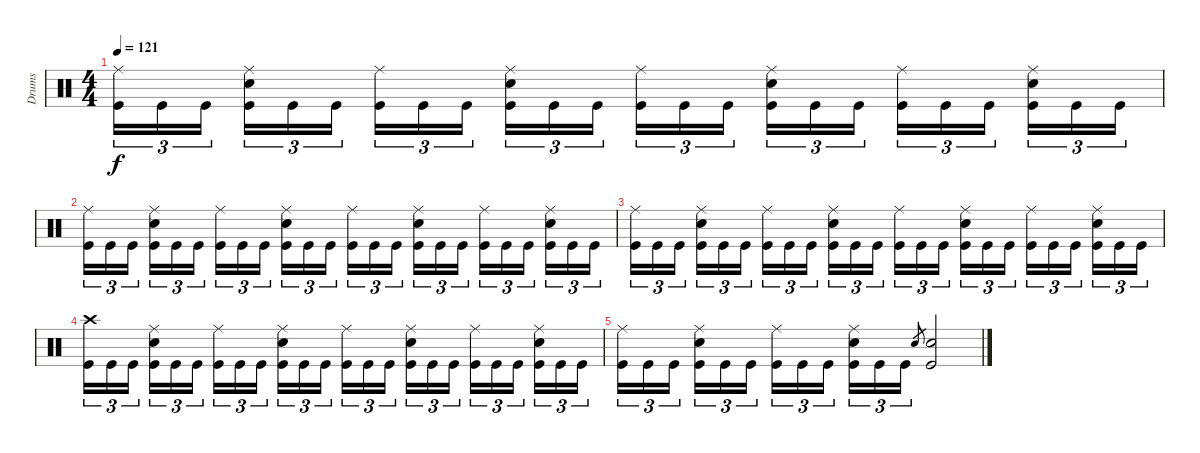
\track ("Drums" "Drums") {instrument percussion}
\staff {score}
\articulation defaults
\ts (4 4)
\tempo 121
\clef neutral
\ks c
("Ride (middle)" "Kick (hit)").16{tu (3 2) dy f} "Kick (hit)".16{tu (3 2)} "Kick (hit)".16{tu (3 2)} ("Ride (middle)" "Electric Snare (hit)" "Kick (hit)").16{tu (3 2)} "Kick (hit)".16{tu (3 2)} "Kick (hit)".16{tu (3 2)} ("Ride (middle)" "Kick (hit)").16{tu (3 2)} "Kick (hit)".16{tu (3 2)} "Kick (hit)".16{tu (3 2)} ("Ride (middle)" "Electric Snare (hit)" "Kick (hit)").16{tu (3 2)} "Kick (hit)".16{tu (3 2)} "Kick (hit)".16{tu (3 2)} ("Ride (middle)" "Kick (hit)").16{tu (3 2)} "Kick (hit)".16{tu (3 2)} "Kick (hit)".16{tu (3 2)} ("Ride (middle)" "Electric Snare (hit)" "Kick (hit)").16{tu (3 2)} "Kick (hit)".16{tu (3 2)} "Kick (hit)".16{tu (3 2)} ("Ride (middle)" "Kick (hit)").16{tu (3 2)} "Kick (hit)".16{tu (3 2)} "Kick (hit)".16{tu (3 2)} ("Ride (middle)" "Electric Snare (hit)" "Kick (hit)").16{tu (3 2)} "Kick (hit)".16{tu (3 2)} "Kick (hit)".16{tu (3 2)} |
("Ride (middle)" "Kick (hit)").16{tu (3 2)} "Kick (hit)".16{tu (3 2)} "Kick (hit)".16{tu (3 2)} ("Ride (middle)" "Electric Snare (hit)" "Kick (hit)").16{tu (3 2)} "Kick (hit)".16{tu (3 2)} "Kick (hit)".16{tu (3 2)} ("Ride (middle)" "Kick (hit)").16{tu (3 2)} "Kick (hit)".16{tu (3 2)} "Kick (hit)".16{tu (3 2)} ("Ride (middle)" "Electric Snare (hit)" "Kick (hit)").16{tu (3 2)} "Kick (hit)".16{tu (3 2)} "Kick (hit)".16{tu (3 2)} ("Ride (middle)" "Kick (hit)").16{tu (3 2)} "Kick (hit)".16{tu (3 2)} "Kick (hit)".16{tu (3 2)} ("Ride (middle)" "Electric Snare (hit)" "Kick (hit)").16{tu (3 2)} "Kick (hit)".16{tu (3 2)} "Kick (hit)".16{tu (3 2)} ("Ride (middle)" "Kick (hit)").16{tu (3 2)} "Kick (hit)".16{tu (3 2)} "Kick (hit)".16{tu (3 2)} ("Ride (middle)" "Electric Snare (hit)" "Kick (hit)").16{tu (3 2)} "Kick (hit)".16{tu (3 2)} "Kick (hit)".16{tu (3 2)} |
("Ride (middle)" "Kick (hit)").16{tu (3 2)} "Kick (hit)".16{tu (3 2)} "Kick (hit)".16{tu (3 2)} ("Ride (middle)" "Electric Snare (hit)" "Kick (hit)").16{tu (3 2)} "Kick (hit)".16{tu (3 2)} "Kick (hit)".16{tu (3 2)} ("Ride (middle)" "Kick (hit)").16{tu (3 2)} "Kick (hit)".16{tu (3 2)} "Kick (hit)".16{tu (3 2)} ("Ride (middle)" "Electric Snare (hit)" "Kick (hit)").16{tu (3 2)} "Kick (hit)".16{tu (3 2)} "Kick (hit)".16{tu (3 2)} ("Ride (middle)" "Kick (hit)").16{tu (3 2)} "Kick (hit)".16{tu (3 2)} "Kick (hit)".16{tu (3 2)} ("Ride (middle)" "Electric Snare (hit)" "Kick (hit)").16{tu (3 2)} "Kick (hit)".16{tu (3 2)} "Kick (hit)".16{tu (3 2)} ("Ride (middle)" "Kick (hit)").16{tu (3 2)} "Kick (hit)".16{tu (3 2)} "Kick (hit)".16{tu (3 2)} ("Ride (middle)" "Electric Snare (hit)" "Kick (hit)").16{tu (3 2)} "Kick (hit)".16{tu (3 2)} "Kick (hit)".16{tu (3 2)} |
("Crash high (hit)" "Kick (hit)").16{tu (3 2)} "Kick (hit)".16{tu (3 2)} "Kick (hit)".16{tu (3 2)} ("Ride (middle)" "Electric Snare (hit)" "Kick (hit)").16{tu (3 2)} "Kick (hit)".16{tu (3 2)} "Kick (hit)".16{tu (3 2)} ("Ride (middle)" "Kick (hit)").16{tu (3 2)} "Kick (hit)".16{tu (3 2)} "Kick (hit)".16{tu (3 2)} ("Ride (middle)" "Electric Snare (hit)" "Kick (hit)").16{tu (3 2)} "Kick (hit)".16{tu (3 2)} "Kick (hit)".16{tu (3 2)} ("Ride (middle)" "Kick (hit)").16{tu (3 2)} "Kick (hit)".16{tu (3 2)} "Kick (hit)".16{tu (3 2)} ("Ride (middle)" "Electric Snare (hit)" "Kick (hit)").16{tu (3 2)} "Kick (hit)".16{tu (3 2)} "Kick (hit)".16{tu (3 2)} ("Ride (middle)" "Kick (hit)").16{tu (3 2)} "Kick (hit)".16{tu (3 2)} "Kick (hit)".16{tu (3 2)} ("Ride (middle)" "Electric Snare (hit)" "Kick (hit)").16{tu (3 2)} "Kick (hit)".16{tu (3 2)} "Kick (hit)".16{tu (3 2)} |
("Ride (middle)" "Kick (hit)").16{tu (3 2)} "Kick (hit)".16{tu (3 2)} "Kick (hit)".16{tu (3 2)} ("Ride (middle)" "Electric Snare (hit)" "Kick (hit)").16{tu (3 2)} "Kick (hit)".16{tu (3 2)} "Kick (hit)".16{tu (3 2)} ("Ride (middle)" "Kick (hit)").16{tu (3 2)} "Kick (hit)".16{tu (3 2)} "Kick (hit)".16{tu (3 2)} ("Ride (middle)" "Electric Snare (hit)" "Kick (hit)").16{tu (3 2)} "Kick (hit)".16{tu (3 2)} "Kick (hit)".16{tu (3 2)} "Electric Snare (hit)".8{gr} ("Electric Snare (hit)" "Kick (hit)").2
